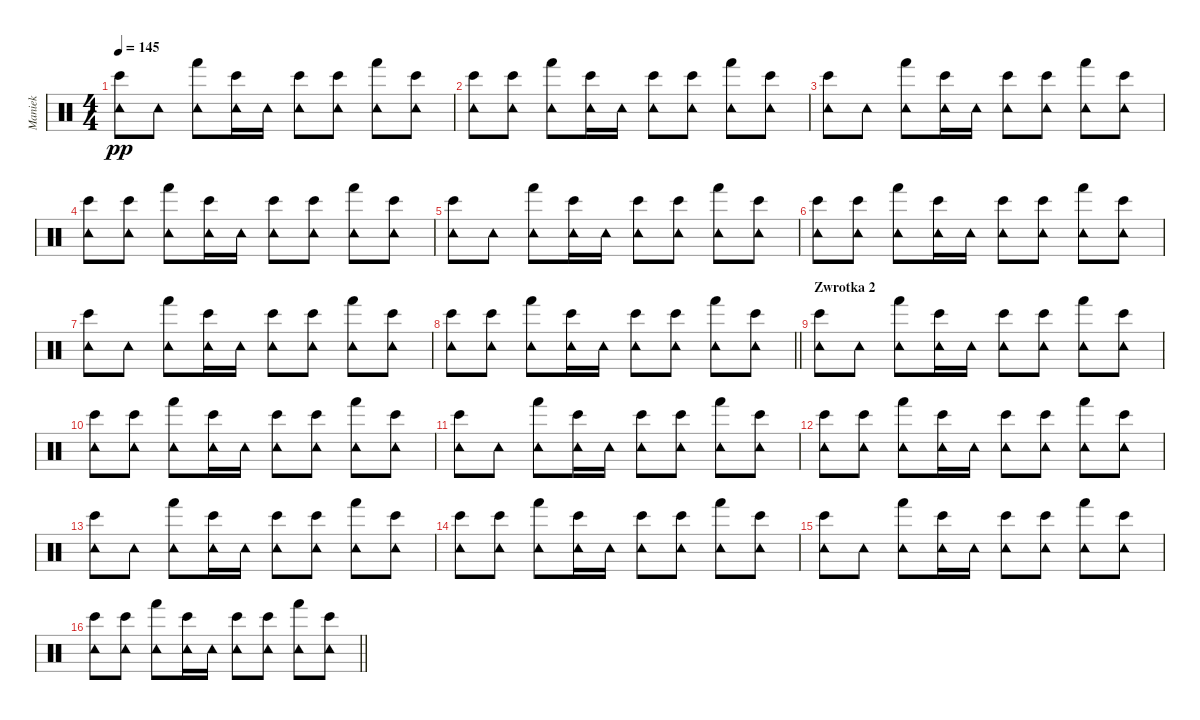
\track ("Maniek" "Maniek") {instrument percussion}
\staff {score}
\articulation defaults
\ts (4 4)
\tempo 145
\clef neutral
\ks c
("Bongo High (hit)" "Tambourine (hit)").8{dy pp} "Tambourine (hit)".8 ("Hand (hit)" "Tambourine (hit)").8 ("Bongo High (hit)" "Tambourine (hit)").16 "Tambourine (hit)".16 ("Bongo High (hit)" "Tambourine (hit)").8 ("Bongo High (hit)" "Tambourine (hit)").8 ("Hand (hit)" "Tambourine (hit)").8 ("Bongo High (hit)" "Tambourine (hit)").8 |
("Bongo High (hit)" "Tambourine (hit)").8 ("Bongo High (hit)" "Tambourine (hit)").8 ("Hand (hit)" "Tambourine (hit)").8 ("Bongo High (hit)" "Tambourine (hit)").16 "Tambourine (hit)".16 ("Bongo High (hit)" "Tambourine (hit)").8 ("Bongo High (hit)" "Tambourine (hit)").8 ("Hand (hit)" "Tambourine (hit)").8 ("Bongo High (hit)" "Tambourine (hit)").8 |
("Bongo High (hit)" "Tambourine (hit)").8 "Tambourine (hit)".8 ("Hand (hit)" "Tambourine (hit)").8 ("Bongo High (hit)" "Tambourine (hit)").16 "Tambourine (hit)".16 ("Bongo High (hit)" "Tambourine (hit)").8 ("Bongo High (hit)" "Tambourine (hit)").8 ("Hand (hit)" "Tambourine (hit)").8 ("Bongo High (hit)" "Tambourine (hit)").8 |
("Bongo High (hit)" "Tambourine (hit)").8 ("Bongo High (hit)" "Tambourine (hit)").8 ("Hand (hit)" "Tambourine (hit)").8 ("Bongo High (hit)" "Tambourine (hit)").16 "Tambourine (hit)".16 ("Bongo High (hit)" "Tambourine (hit)").8 ("Bongo High (hit)" "Tambourine (hit)").8 ("Hand (hit)" "Tambourine (hit)").8 ("Bongo High (hit)" "Tambourine (hit)").8 |
("Bongo High (hit)" "Tambourine (hit)").8 "Tambourine (hit)".8 ("Hand (hit)" "Tambourine (hit)").8 ("Bongo High (hit)" "Tambourine (hit)").16 "Tambourine (hit)".16 ("Bongo High (hit)" "Tambourine (hit)").8 ("Bongo High (hit)" "Tambourine (hit)").8 ("Hand (hit)" "Tambourine (hit)").8 ("Bongo High (hit)" "Tambourine (hit)").8 |
("Bongo High (hit)" "Tambourine (hit)").8 ("Bongo High (hit)" "Tambourine (hit)").8 ("Hand (hit)" "Tambourine (hit)").8 ("Bongo High (hit)" "Tambourine (hit)").16 "Tambourine (hit)".16 ("Bongo High (hit)" "Tambourine (hit)").8 ("Bongo High (hit)" "Tambourine (hit)").8 ("Hand (hit)" "Tambourine (hit)").8 ("Bongo High (hit)" "Tambourine (hit)").8 |
("Bongo High (hit)" "Tambourine (hit)").8 "Tambourine (hit)".8 ("Hand (hit)" "Tambourine (hit)").8 ("Bongo High (hit)" "Tambourine (hit)").16 "Tambourine (hit)".16 ("Bongo High (hit)" "Tambourine (hit)").8 ("Bongo High (hit)" "Tambourine (hit)").8 ("Hand (hit)" "Tambourine (hit)").8 ("Bongo High (hit)" "Tambourine (hit)").8 |
\barLineRight lightlight
("Bongo High (hit)" "Tambourine (hit)").8 ("Bongo High (hit)" "Tambourine (hit)").8 ("Hand (hit)" "Tambourine (hit)").8 ("Bongo High (hit)" "Tambourine (hit)").16 "Tambourine (hit)".16 ("Bongo High (hit)" "Tambourine (hit)").8 ("Bongo High (hit)" "Tambourine (hit)").8 ("Hand (hit)" "Tambourine (hit)").8 ("Bongo High (hit)" "Tambourine (hit)").8 |
\section ("" "Zwrotka 2")
("Bongo High (hit)" "Tambourine (hit)").8 "Tambourine (hit)".8 ("Hand (hit)" "Tambourine (hit)").8 ("Bongo High (hit)" "Tambourine (hit)").16 "Tambourine (hit)".16 ("Bongo High (hit)" "Tambourine (hit)").8 ("Bongo High (hit)" "Tambourine (hit)").8 ("Hand (hit)" "Tambourine (hit)").8 ("Bongo High (hit)" "Tambourine (hit)").8 |
("Bongo High (hit)" "Tambourine (hit)").8 ("Bongo High (hit)" "Tambourine (hit)").8 ("Hand (hit)" "Tambourine (hit)").8 ("Bongo High (hit)" "Tambourine (hit)").16 "Tambourine (hit)".16 ("Bongo High (hit)" "Tambourine (hit)").8 ("Bongo High (hit)" "Tambourine (hit)").8 ("Hand (hit)" "Tambourine (hit)").8 ("Bongo High (hit)" "Tambourine (hit)").8 |
("Bongo High (hit)" "Tambourine (hit)").8 "Tambourine (hit)".8 ("Hand (hit)" "Tambourine (hit)").8 ("Bongo High (hit)" "Tambourine (hit)").16 "Tambourine (hit)".16 ("Bongo High (hit)" "Tambourine (hit)").8 ("Bongo High (hit)" "Tambourine (hit)").8 ("Hand (hit)" "Tambourine (hit)").8 ("Bongo High (hit)" "Tambourine (hit)").8 |
("Bongo High (hit)" "Tambourine (hit)").8 ("Bongo High (hit)" "Tambourine (hit)").8 ("Hand (hit)" "Tambourine (hit)").8 ("Bongo High (hit)" "Tambourine (hit)").16 "Tambourine (hit)".16 ("Bongo High (hit)" "Tambourine (hit)").8 ("Bongo High (hit)" "Tambourine (hit)").8 ("Hand (hit)" "Tambourine (hit)").8 ("Bongo High (hit)" "Tambourine (hit)").8 |
("Bongo High (hit)" "Tambourine (hit)").8 "Tambourine (hit)".8 ("Hand (hit)" "Tambourine (hit)").8 ("Bongo High (hit)" "Tambourine (hit)").16 "Tambourine (hit)".16 ("Bongo High (hit)" "Tambourine (hit)").8 ("Bongo High (hit)" "Tambourine (hit)").8 ("Hand (hit)" "Tambourine (hit)").8 ("Bongo High (hit)" "Tambourine (hit)").8 |
("Bongo High (hit)" "Tambourine (hit)").8 ("Bongo High (hit)" "Tambourine (hit)").8 ("Hand (hit)" "Tambourine (hit)").8 ("Bongo High (hit)" "Tambourine (hit)").16 "Tambourine (hit)".16 ("Bongo High (hit)" "Tambourine (hit)").8 ("Bongo High (hit)" "Tambourine (hit)").8 ("Hand (hit)" "Tambourine (hit)").8 ("Bongo High (hit)" "Tambourine (hit)").8 |
("Bongo High (hit)" "Tambourine (hit)").8 "Tambourine (hit)".8 ("Hand (hit)" "Tambourine (hit)").8 ("Bongo High (hit)" "Tambourine (hit)").16 "Tambourine (hit)".16 ("Bongo High (hit)" "Tambourine (hit)").8 ("Bongo High (hit)" "Tambourine (hit)").8 ("Hand (hit)" "Tambourine (hit)").8 ("Bongo High (hit)" "Tambourine (hit)").8 |
\barLineRight lightlight
("Bongo High (hit)" "Tambourine (hit)").8 ("Bongo High (hit)" "Tambourine (hit)").8 ("Hand (hit)" "Tambourine (hit)").8 ("Bongo High (hit)" "Tambourine (hit)").16 "Tambourine (hit)".16 ("Bongo High (hit)" "Tambourine (hit)").8 ("Bongo High (hit)" "Tambourine (hit)").8 ("Hand (hit)" "Tambourine (hit)").8 ("Bongo High (hit)" "Tambourine (hit)").8
